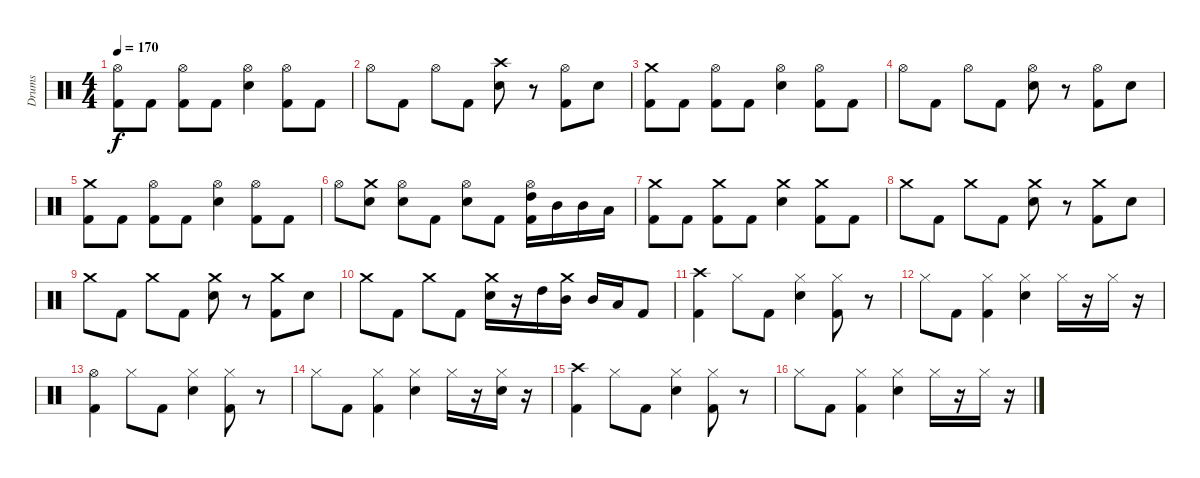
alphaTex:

\track ("Drums" "Drums") {instrument percussion}
\staff {score}
\articulation defaults
\ts (4 4)
\tempo 170
\clef neutral
\ks c
("Hi-Hat (open)" "Kick (hit) 2").8{dy f} "Kick (hit) 2".8 ("Hi-Hat (open)" "Kick (hit) 2").8 "Kick (hit) 2".8 ("Hi-Hat (open)" "Snare (hit) 2").4 ("Hi-Hat (open)" "Kick (hit) 2").8 "Kick (hit) 2".8 |
"Hi-Hat (open)".8 "Kick (hit) 2".8 "Hi-Hat (open)".8 "Kick (hit) 2".8 ("Crash high (hit)" "Snare (hit) 2").8 r.8 ("Hi-Hat (open)" "Kick (hit) 2").8 "Snare (hit) 2".8 |
("Crash medium (hit)" "Kick (hit) 2").8 "Kick (hit) 2".8 ("Hi-Hat (open)" "Kick (hit) 2").8 "Kick (hit) 2".8 ("Hi-Hat (open)" "Snare (hit) 2").4 ("Hi-Hat (open)" "Kick (hit) 2").8 "Kick (hit) 2".8 |
"Hi-Hat (open)".8 "Kick (hit) 2".8 "Hi-Hat (open)".8 "Kick (hit) 2".8 ("Hi-Hat (open)" "Snare (hit) 2").8 r.8 ("Hi-Hat (open)" "Kick (hit) 2").8 "Snare (hit) 2".8 |
("Crash medium (hit)" "Kick (hit) 2").8 "Kick (hit) 2".8 ("Hi-Hat (open)" "Kick (hit) 2").8 "Kick (hit) 2".8 ("Hi-Hat (open)" "Snare (hit) 2").4 ("Hi-Hat (open)" "Kick (hit) 2").8 "Kick (hit) 2".8 |
"Hi-Hat (open)".8 ("Crash medium (hit)" "Snare (hit) 2").8 ("Hi-Hat (open)" "Snare (hit) 2").8 "Kick (hit) 2".8 ("Hi-Hat (open)" "Snare (hit) 2").8 "Kick (hit) 2".8 ("Hi-Hat (open)" "High Tom (hit)" "Kick (hit) 2").16 "Mid Tom (hit)".16 "Mid Tom (hit)".16 "Low Tom (hit)".16 |
("Crash medium (hit)" "Kick (hit) 2").8 "Kick (hit) 2".8 ("Crash medium (hit)" "Kick (hit) 2").8 "Kick (hit) 2".8 ("Crash medium (hit)" "Snare (hit) 2").4 ("Crash medium (hit)" "Kick (hit) 2").8 "Kick (hit) 2".8 |
"Crash medium (hit)".8 "Kick (hit) 2".8 "Crash medium (hit)".8 "Kick (hit) 2".8 ("Crash medium (hit)" "Snare (hit) 2").8 r.8 ("Crash medium (hit)" "Kick (hit) 2").8 "Snare (hit) 2".8 |
"Crash medium (hit)".8 "Kick (hit) 2".8 "Crash medium (hit)".8 "Kick (hit) 2".8 ("Crash medium (hit)" "Snare (hit) 2").8 r.8 ("Crash medium (hit)" "Kick (hit) 2").8 "Snare (hit) 2".8 |
"Crash medium (hit)".8 "Kick (hit) 2".8 "Crash medium (hit)".8 "Kick (hit) 2".8 ("Crash medium (hit)" "Snare (hit) 2").16 r.16 "High Tom (hit)".16 ("Crash medium (hit)" "Mid Tom (hit)").16 "Mid Tom (hit)".16 "Low Tom (hit)".16 "Kick (hit) 2".8 |
("Crash high (hit)" "Kick (hit) 2").4 "Hi-Hat (closed)".8 "Kick (hit) 2".8 ("Hi-Hat (closed)" "Snare (hit) 2").4 ("Hi-Hat (closed)" "Kick (hit) 2").8 r.8 |
"Hi-Hat (closed)".8 "Kick (hit) 2".8 ("Hi-Hat (closed)" "Kick (hit) 2").4 ("Hi-Hat (closed)" "Snare (hit) 2").4 "Hi-Hat (closed)".16 r.16 "Hi-Hat (closed)".16 r.16 |
("Hi-Hat (open)" "Kick (hit) 2").4 "Hi-Hat (closed)".8 "Kick (hit) 2".8 ("Hi-Hat (closed)" "Snare (hit) 2").4 ("Hi-Hat (closed)" "Kick (hit) 2").8 r.8 |
"Hi-Hat (closed)".8 "Kick (hit) 2".8 ("Hi-Hat (closed)" "Kick (hit) 2").4 ("Hi-Hat (closed)" "Snare (hit) 2").4 "Hi-Hat (closed)".16 r.16 ("Hi-Hat (closed)" "Snare (hit) 2").16 r.16 |
("Crash high (hit)" "Kick (hit) 2").4 "Hi-Hat (closed)".8 "Kick (hit) 2".8 ("Hi-Hat (closed)" "Snare (hit) 2").4 ("Hi-Hat (closed)" "Kick (hit) 2").8 r.8 |
"Hi-Hat (closed)".8 "Kick (hit) 2".8 ("Hi-Hat (closed)" "Kick (hit) 2").4 ("Hi-Hat (closed)" "Snare (hit) 2").4 "Hi-Hat (closed)".16 r.16 "Hi-Hat (closed)".16 r.16
